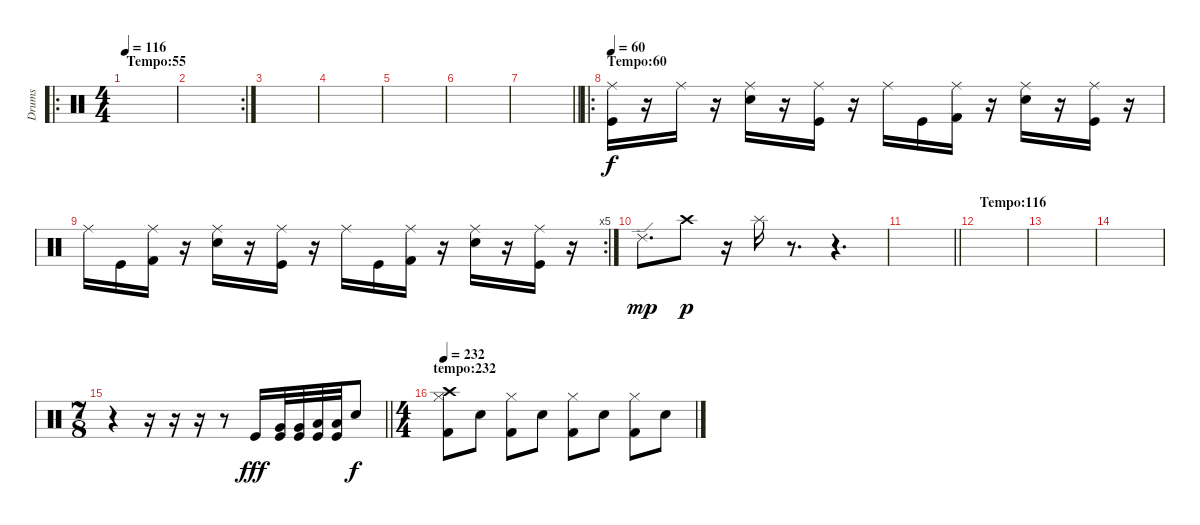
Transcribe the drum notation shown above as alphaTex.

\track ("Drums" "Drums") {instrument percussion}
\staff {score}
\articulation defaults
\ro
\ts (4 4)
\section ("" "Tempo:55")
\tempo 116
\tempo 55
\tempo 116
\clef neutral
\ks c
|
\rc 2
|
|
|
|
|
\barLineRight lightlight
|
\ro
\section ("" "Tempo:60")
\tempo 60
("Ride (middle)" "Kick (hit)").16 r.16 "Ride (middle)".16 r.16 ("Ride (middle)" "Electric Snare (hit)").16 r.16 ("Ride (middle)" "Kick (hit)").16 r.16 "Ride (middle)".16 "Kick (hit)".16 ("Ride (middle)" "Kick (hit) 2").16 r.16 ("Ride (middle)" "Electric Snare (hit)").16 r.16 ("Ride (middle)" "Kick (hit)").16 r.16 |
\rc 5 "Ride (middle)".16 "Kick (hit)".16
("Ride (middle)" "Kick (hit) 2").16 r.16 ("Ride (middle)" "Electric Snare (hit)").16 r.16 ("Ride (middle)" "Kick (hit)").16 r.16 "Ride (middle)".16 "Kick (hit)".16 ("Ride (middle)" "Kick (hit) 2").16 r.16 ("Ride (middle)" "Electric Snare (hit)").16 r.16 ("Ride (middle)" "Kick (hit)").16 r.16 |
"Ride (edge) 2".8{d dy mp} "Crash high (hit)".8{dy p} r.16 "Splash (hit)".16 r.8{d} r.4{d} |
\barLineRight lightlight
|
\section ("" "Tempo:116")
|
|
|
\ts (7 8)
\barLineRight lightlight
r.4 r.16 r.16 r.16 r.8 "Kick (hit)".16{dy fff} ("Very Low Tom (hit)" "Kick (hit)").32 ("Very Low Tom (hit)" "Kick (hit)").32 ("Low Tom (hit)" "Kick (hit)").32 ("Low Tom (hit)" "Kick (hit)").32 "Electric Snare (hit)".8{dy f} |
\ts (4 4)
\section ("" "tempo:232")
\tempo 232
("Hi-Hat (closed)" "Crash high (hit)" "Kick (hit) 2").8 "Electric Snare (hit)".8 ("Hi-Hat (closed)" "Kick (hit) 2").8 "Electric Snare (hit)".8 ("Hi-Hat (closed)" "Kick (hit) 2").8 "Electric Snare (hit)".8 ("Hi-Hat (closed)" "Kick (hit) 2").8 "Electric Snare (hit)".8
